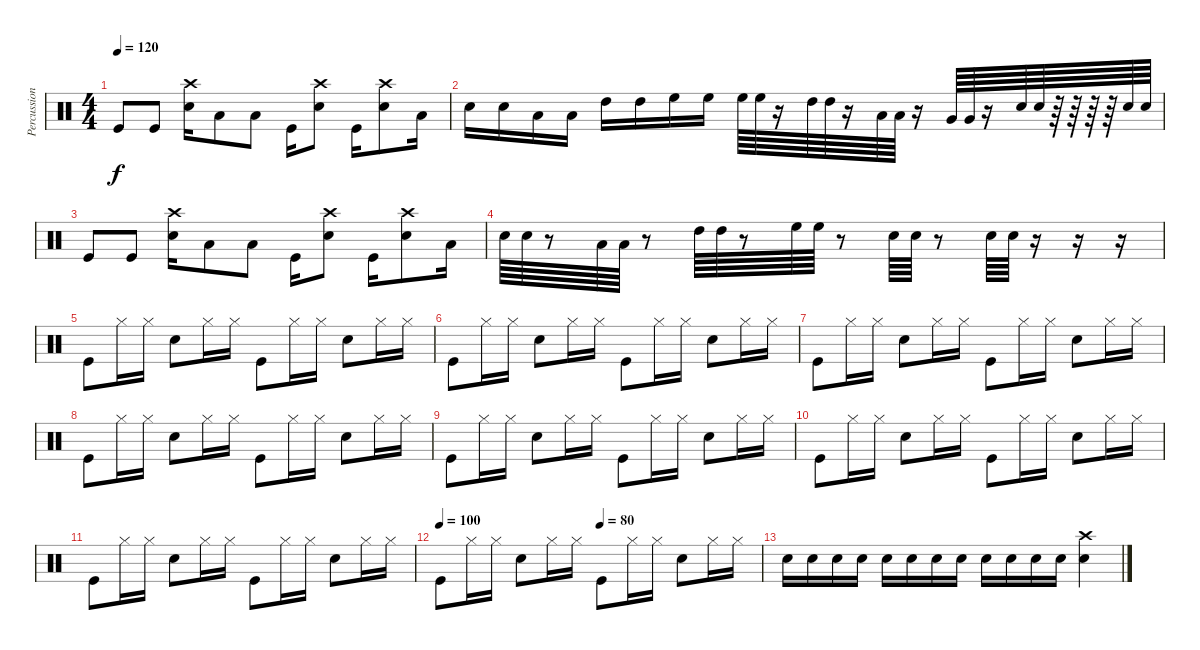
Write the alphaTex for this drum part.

\track ("Percussion" "Percussion") {instrument percussion}
\staff {score}
\articulation defaults
\ts (4 4)
\tempo 120
\clef neutral
\ks c "Kick (hit)".8{dy f volume 13} "Kick (hit)".8
("Crash high (hit)" "Snare (hit) 2").16 "Low Tom (hit)".8 "Low Tom (hit)".8 "Kick (hit)".16 ("Crash high (hit)" "Snare (hit) 2").8 "Kick (hit)".16 ("Snare (hit) 2" "Crash high (hit)").8 "Low Tom (hit)".16 |
"Snare (hit) 2".16{volume 16} "Snare (hit) 2".16 "Low Tom (hit)".16 "Low Tom (hit)".16 "High Tom (hit)".16 "High Tom (hit)".16 "High Floor Tom (hit)".16 "High Floor Tom (hit)".16 "High Floor Tom (hit)".64 "High Floor Tom (hit)".64 r.16 "High Tom (hit)".64 "High Tom (hit)".64 r.16 "Low Tom (hit)".64 "Low Tom (hit)".64 r.16 "Very Low Tom (hit)".64 "Very Low Tom (hit)".64 r.16 "Snare (hit) 2".64 "Snare (hit) 2".64 r.64 r.64 r.64 r.64 "Snare (hit) 2".64 "Snare (hit) 2".64 |
"Kick (hit)".8{volume 13} "Kick (hit)".8 ("Crash high (hit)" "Snare (hit) 2").16 "Low Tom (hit)".8 "Low Tom (hit)".8 "Kick (hit)".16 ("Crash high (hit)" "Snare (hit) 2").8 "Kick (hit)".16 ("Snare (hit) 2" "Crash high (hit)").8 "Low Tom (hit)".16 |
"Snare (hit) 2".64{volume 16} "Snare (hit) 2".64 r.8 "Low Tom (hit)".64 "Low Tom (hit)".64 r.8 "High Tom (hit)".64 "High Tom (hit)".64 r.8 "High Floor Tom (hit)".64 "High Floor Tom (hit)".64 r.8 "Snare (hit) 2".64 "Snare (hit) 2".64 r.8 "Snare (hit) 2".64 "Snare (hit) 2".64 r.16 r.16 r.16 |
"Kick (hit)".8{volume 13} "Hi-Hat (closed)".16 "Hi-Hat (closed)".16 "Snare (hit) 2".8 "Hi-Hat (closed)".16 "Hi-Hat (closed)".16 "Kick (hit)".8 "Hi-Hat (closed)".16 "Hi-Hat (closed)".16 "Snare (hit) 2".8 "Hi-Hat (closed)".16 "Hi-Hat (closed)".16 |
"Kick (hit)".8 "Hi-Hat (closed)".16 "Hi-Hat (closed)".16 "Snare (hit) 2".8 "Hi-Hat (closed)".16 "Hi-Hat (closed)".16 "Kick (hit)".8 "Hi-Hat (closed)".16 "Hi-Hat (closed)".16 "Snare (hit) 2".8 "Hi-Hat (closed)".16 "Hi-Hat (closed)".16 |
"Kick (hit)".8 "Hi-Hat (closed)".16 "Hi-Hat (closed)".16 "Snare (hit) 2".8 "Hi-Hat (closed)".16 "Hi-Hat (closed)".16 "Kick (hit)".8 "Hi-Hat (closed)".16 "Hi-Hat (closed)".16 "Snare (hit) 2".8 "Hi-Hat (closed)".16 "Hi-Hat (closed)".16 |
"Kick (hit)".8 "Hi-Hat (closed)".16 "Hi-Hat (closed)".16 "Snare (hit) 2".8 "Hi-Hat (closed)".16 "Hi-Hat (closed)".16 "Kick (hit)".8 "Hi-Hat (closed)".16 "Hi-Hat (closed)".16 "Snare (hit) 2".8 "Hi-Hat (closed)".16 "Hi-Hat (closed)".16 |
"Kick (hit)".8 "Hi-Hat (closed)".16 "Hi-Hat (closed)".16 "Snare (hit) 2".8 "Hi-Hat (closed)".16 "Hi-Hat (closed)".16 "Kick (hit)".8 "Hi-Hat (closed)".16 "Hi-Hat (closed)".16 "Snare (hit) 2".8 "Hi-Hat (closed)".16 "Hi-Hat (closed)".16 |
"Kick (hit)".8 "Hi-Hat (closed)".16 "Hi-Hat (closed)".16 "Snare (hit) 2".8 "Hi-Hat (closed)".16 "Hi-Hat (closed)".16 "Kick (hit)".8 "Hi-Hat (closed)".16 "Hi-Hat (closed)".16 "Snare (hit) 2".8 "Hi-Hat (closed)".16 "Hi-Hat (closed)".16 |
"Kick (hit)".8 "Hi-Hat (closed)".16 "Hi-Hat (closed)".16 "Snare (hit) 2".8 "Hi-Hat (closed)".16 "Hi-Hat (closed)".16 "Kick (hit)".8 "Hi-Hat (closed)".16 "Hi-Hat (closed)".16 "Snare (hit) 2".8 "Hi-Hat (closed)".16 "Hi-Hat (closed)".16 |
\tempo 100
\tempo (80 0.5)
"Kick (hit)".8 "Hi-Hat (closed)".16 "Hi-Hat (closed)".16 "Snare (hit) 2".8 "Hi-Hat (closed)".16 "Hi-Hat (closed)".16 "Kick (hit)".8 "Hi-Hat (closed)".16 "Hi-Hat (closed)".16 "Snare (hit) 2".8 "Hi-Hat (closed)".16 "Hi-Hat (closed)".16 |
"Snare (hit) 2".16 "Snare (hit) 2".16 "Snare (hit) 2".16 "Snare (hit) 2".16 "Snare (hit) 2".16 "Snare (hit) 2".16 "Snare (hit) 2".16 "Snare (hit) 2".16 "Snare (hit) 2".16 "Snare (hit) 2".16 "Snare (hit) 2".16 "Snare (hit) 2".16 ("Crash high (hit)" "Snare (hit) 2").4
